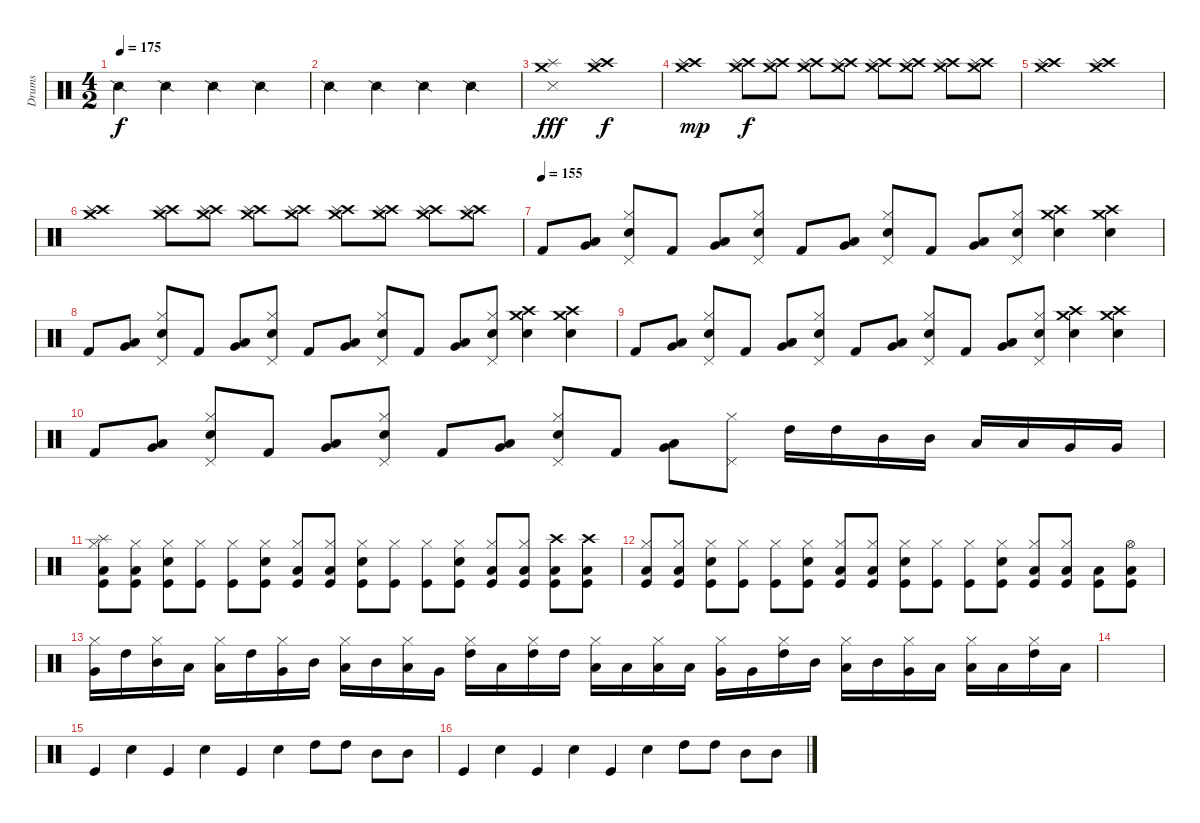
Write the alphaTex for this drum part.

\track ("Drums" "Drums") {instrument percussion}
\staff {score}
\articulation defaults
\ts (4 2)
\tempo 175
\clef neutral
\ks c "Snare (side stick) 2".2{dy f} "Snare (side stick) 2".2 "Snare (side stick) 2".2 "Snare (side stick) 2".2
|
"Snare (side stick) 2".2 "Snare (side stick) 2".2 "Snare (side stick) 2".2 "Snare (side stick) 2".2 |
("Snare (side stick) 3" "Splash (hit)" "Crash medium (hit)").1{dy fff} ("Crash high (hit)" "Splash (hit)" "Crash medium (hit)").1{dy f} |
("Crash high (hit)" "Splash (hit)" "Crash medium (hit)").1{dy mp} ("Crash high (hit)" "Splash (hit)" "Crash medium (hit)").8{dy f} ("Crash high (hit)" "Splash (hit)" "Crash medium (hit)").8 ("Crash high (hit)" "Splash (hit)" "Crash medium (hit)").8 ("Crash high (hit)" "Splash (hit)" "Crash medium (hit)").8 ("Crash high (hit)" "Splash (hit)" "Crash medium (hit)").8 ("Crash high (hit)" "Splash (hit)" "Crash medium (hit)").8 ("Crash high (hit)" "Splash (hit)" "Crash medium (hit)").8 ("Crash high (hit)" "Splash (hit)" "Crash medium (hit)").8 |
("Crash high (hit)" "Splash (hit)" "Crash medium (hit)").1 ("Crash high (hit)" "Splash (hit)" "Crash medium (hit)").1 |
("Crash high (hit)" "Splash (hit)" "Crash medium (hit)").1 ("Crash high (hit)" "Splash (hit)" "Crash medium (hit)").8 ("Crash high (hit)" "Splash (hit)" "Crash medium (hit)").8 ("Crash high (hit)" "Splash (hit)" "Crash medium (hit)").8 ("Crash high (hit)" "Splash (hit)" "Crash medium (hit)").8 ("Crash high (hit)" "Splash (hit)" "Crash medium (hit)").8 ("Crash high (hit)" "Splash (hit)" "Crash medium (hit)").8 ("Crash high (hit)" "Splash (hit)" "Crash medium (hit)").8 ("Crash high (hit)" "Splash (hit)" "Crash medium (hit)").8 |
\tempo (155)
"Kick (hit) 2".8 ("Low Floor Tom (hit)" "Very Low Tom (hit)").8 ("Electric Snare (hit)" "Hi-Hat (closed)" "Pedal Hi-Hat (hit)").8 "Kick (hit) 2".8 ("Low Floor Tom (hit)" "Very Low Tom (hit)").8 ("Electric Snare (hit)" "Hi-Hat (closed)" "Pedal Hi-Hat (hit)").8 "Kick (hit) 2".8 ("Low Floor Tom (hit)" "Very Low Tom (hit)").8 ("Electric Snare (hit)" "Hi-Hat (closed)" "Pedal Hi-Hat (hit)").8 "Kick (hit) 2".8 ("Low Floor Tom (hit)" "Very Low Tom (hit)").8 ("Electric Snare (hit)" "Hi-Hat (closed)" "Pedal Hi-Hat (hit)").8 ("Crash high (hit)" "Electric Snare (hit)" "Crash medium (hit)").4 ("Crash high (hit)" "Electric Snare (hit)" "Crash medium (hit)").4 |
"Kick (hit) 2".8 ("Low Floor Tom (hit)" "Very Low Tom (hit)").8 ("Electric Snare (hit)" "Hi-Hat (closed)" "Pedal Hi-Hat (hit)").8 "Kick (hit) 2".8 ("Low Floor Tom (hit)" "Very Low Tom (hit)").8 ("Electric Snare (hit)" "Hi-Hat (closed)" "Pedal Hi-Hat (hit)").8 "Kick (hit) 2".8 ("Low Floor Tom (hit)" "Very Low Tom (hit)").8 ("Electric Snare (hit)" "Hi-Hat (closed)" "Pedal Hi-Hat (hit)").8 "Kick (hit) 2".8 ("Low Floor Tom (hit)" "Very Low Tom (hit)").8 ("Electric Snare (hit)" "Hi-Hat (closed)" "Pedal Hi-Hat (hit)").8 ("Crash high (hit)" "Electric Snare (hit)" "Crash medium (hit)").4 ("Crash high (hit)" "Electric Snare (hit)" "Crash medium (hit)").4 |
"Kick (hit) 2".8 ("Low Floor Tom (hit)" "Very Low Tom (hit)").8 ("Electric Snare (hit)" "Hi-Hat (closed)" "Pedal Hi-Hat (hit)").8 "Kick (hit) 2".8 ("Low Floor Tom (hit)" "Very Low Tom (hit)").8 ("Electric Snare (hit)" "Hi-Hat (closed)" "Pedal Hi-Hat (hit)").8 "Kick (hit) 2".8 ("Low Floor Tom (hit)" "Very Low Tom (hit)").8 ("Electric Snare (hit)" "Hi-Hat (closed)" "Pedal Hi-Hat (hit)").8 "Kick (hit) 2".8 ("Low Floor Tom (hit)" "Very Low Tom (hit)").8 ("Electric Snare (hit)" "Hi-Hat (closed)" "Pedal Hi-Hat (hit)").8 ("Crash high (hit)" "Electric Snare (hit)" "Crash medium (hit)").4 ("Crash high (hit)" "Electric Snare (hit)" "Crash medium (hit)").4 |
"Kick (hit) 2".8 ("Low Floor Tom (hit)" "Very Low Tom (hit)").8 ("Electric Snare (hit)" "Hi-Hat (closed)" "Pedal Hi-Hat (hit)").8 "Kick (hit) 2".8 ("Low Floor Tom (hit)" "Very Low Tom (hit)").8 ("Electric Snare (hit)" "Hi-Hat (closed)" "Pedal Hi-Hat (hit)").8 "Kick (hit) 2".8 ("Low Floor Tom (hit)" "Very Low Tom (hit)").8 ("Electric Snare (hit)" "Hi-Hat (closed)" "Pedal Hi-Hat (hit)").8 "Kick (hit) 2".8 ("Low Floor Tom (hit)" "Very Low Tom (hit)").8 ("Hi-Hat (closed)" "Pedal Hi-Hat (hit)").8 "High Tom (hit)".16 "High Tom (hit)".16 "Mid Tom (hit)".16 "Mid Tom (hit)".16 "Low Tom (hit)".16 "Low Tom (hit)".16 "Very Low Tom (hit)".16 "Very Low Tom (hit)".16 |
("Kick (hit)" "Hi-Hat (closed)" "Low Floor Tom (hit)" "Splash (hit)").8 ("Kick (hit)" "Hi-Hat (closed)" "Low Floor Tom (hit)").8 ("Kick (hit)" "Snare (hit) 2" "Hi-Hat (closed)").8 ("Kick (hit)" "Hi-Hat (closed)").8 ("Kick (hit)" "Hi-Hat (closed)").8 ("Kick (hit)" "Snare (hit) 2" "Hi-Hat (closed)").8 ("Kick (hit)" "Hi-Hat (closed)" "Low Floor Tom (hit)").8 ("Kick (hit)" "Hi-Hat (closed)" "Low Floor Tom (hit)").8 ("Kick (hit)" "Snare (hit) 2" "Hi-Hat (closed)").8 ("Kick (hit)" "Hi-Hat (closed)").8 ("Kick (hit)" "Hi-Hat (closed)").8 ("Kick (hit)" "Snare (hit) 2" "Hi-Hat (closed)").8 ("Kick (hit)" "Hi-Hat (closed)" "Low Floor Tom (hit)").8 ("Kick (hit)" "Hi-Hat (closed)" "Low Floor Tom (hit)").8 ("Kick (hit)" "Crash high (hit)" "Low Floor Tom (hit)").8 ("Kick (hit)" "Crash high (hit)" "Low Floor Tom (hit)").8 |
("Kick (hit)" "Hi-Hat (closed)" "Low Floor Tom (hit)").8 ("Kick (hit)" "Hi-Hat (closed)" "Low Floor Tom (hit)").8 ("Kick (hit)" "Snare (hit) 2" "Hi-Hat (closed)").8 ("Kick (hit)" "Hi-Hat (closed)").8 ("Kick (hit)" "Hi-Hat (closed)").8 ("Kick (hit)" "Snare (hit) 2" "Hi-Hat (closed)").8 ("Kick (hit)" "Hi-Hat (closed)" "Low Floor Tom (hit)").8 ("Kick (hit)" "Hi-Hat (closed)" "Low Floor Tom (hit)").8 ("Kick (hit)" "Snare (hit) 2" "Hi-Hat (closed)").8 ("Kick (hit)" "Hi-Hat (closed)").8 ("Kick (hit)" "Hi-Hat (closed)").8 ("Kick (hit)" "Snare (hit) 2" "Hi-Hat (closed)").8 ("Kick (hit)" "Hi-Hat (closed)" "Low Floor Tom (hit)").8 ("Kick (hit)" "Hi-Hat (closed)" "Low Floor Tom (hit)").8 ("Kick (hit)" "Low Floor Tom (hit)").8 ("Kick (hit)" "Hi-Hat (open)" "Low Floor Tom (hit)").8 |
("Very Low Tom (hit)" "Hi-Hat (closed)").16 "High Tom (hit)".16 ("Mid Tom (hit)" "Hi-Hat (closed)").16 "Low Tom (hit)".16 ("Low Floor Tom (hit)" "Hi-Hat (closed)").16 "High Tom (hit)".16 ("Very Low Tom (hit)" "Hi-Hat (closed)").16 "Mid Tom (hit)".16 ("Low Floor Tom (hit)" "Hi-Hat (closed)").16 "Mid Tom (hit)".16 ("Low Tom (hit)" "Hi-Hat (closed)").16 "Very Low Tom (hit)".16 ("High Tom (hit)" "Hi-Hat (closed)").16 "Low Floor Tom (hit)".16 ("High Tom (hit)" "Hi-Hat (closed)").16 "High Tom (hit)".16 ("Low Floor Tom (hit)" "Hi-Hat (closed)").16 "Low Floor Tom (hit)".16 ("Low Floor Tom (hit)" "Hi-Hat (closed)").16 "Low Floor Tom (hit)".16 ("Very Low Tom (hit)" "Hi-Hat (closed)").16 "Very Low Tom (hit)".16 ("High Tom (hit)" "Hi-Hat (closed)").16 "Mid Tom (hit)".16 ("Low Tom (hit)" "Hi-Hat (closed)").16 "Mid Tom (hit)".16 ("Very Low Tom (hit)" "Hi-Hat (closed)").16 "Low Floor Tom (hit)".16 ("Low Floor Tom (hit)" "Hi-Hat (closed)").16 "Low Floor Tom (hit)".16 ("High Tom (hit)" "Hi-Hat (closed)").16 "Low Tom (hit)".16 |
|
"Kick (hit)".4 "Snare (hit) 2".4 "Kick (hit)".4 "Snare (hit) 2".4 "Kick (hit)".4 "Snare (hit) 2".4 "High Tom (hit)".8 "High Tom (hit)".8 "Mid Tom (hit)".8 "Mid Tom (hit)".8 |
"Kick (hit)".4 "Snare (hit) 2".4 "Kick (hit)".4 "Snare (hit) 2".4 "Kick (hit)".4 "Snare (hit) 2".4 "High Tom (hit)".8 "High Tom (hit)".8 "Mid Tom (hit)".8 "Mid Tom (hit)".8
